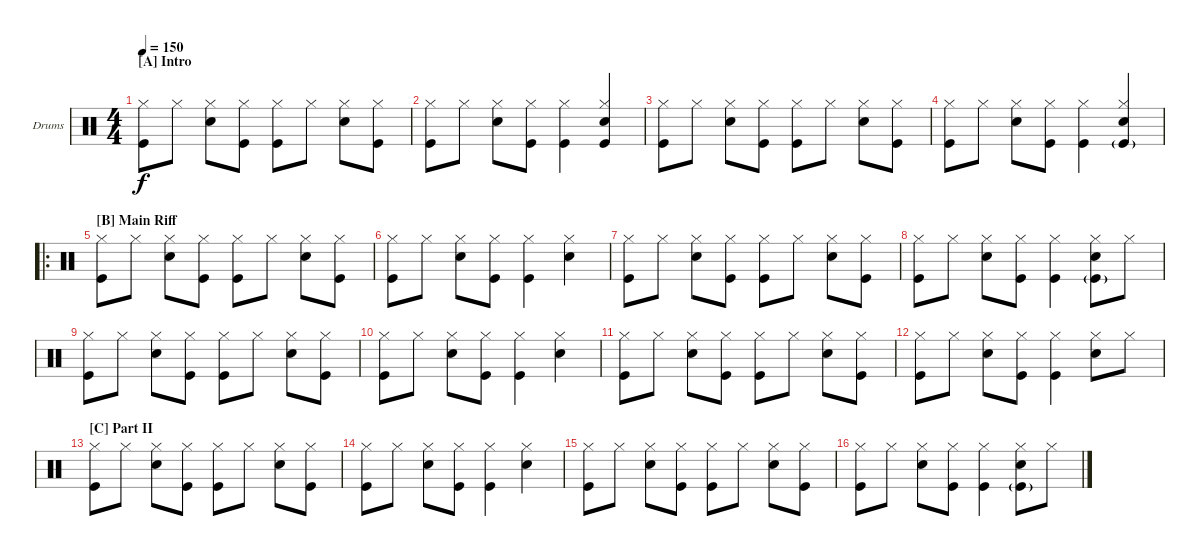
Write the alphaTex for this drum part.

\defaultSystemsLayout 4
\bracketExtendMode groupsimilarinstruments
\firstSystemTrackNameOrientation horizontal
\otherSystemsTrackNameOrientation horizontal
\track ("Drumkit" "Drums") {instrument percussion}
\staff {score}
\articulation defaults
\ts (4 4)
\section ("A" "Intro")
\tempo 150
\clef neutral
\ks c
("Kick (hit)" "Hi-Hat (closed)").8{dy f} "Hi-Hat (closed)".8 ("Hi-Hat (closed)" "Snare (hit) 2").8 ("Hi-Hat (closed)" "Kick (hit)").8 ("Hi-Hat (closed)" "Kick (hit)").8 "Hi-Hat (closed)".8 ("Hi-Hat (closed)" "Snare (hit) 2").8 ("Hi-Hat (closed)" "Kick (hit)").8 |
("Kick (hit)" "Hi-Hat (closed)").8 "Hi-Hat (closed)".8 ("Hi-Hat (closed)" "Snare (hit) 2").8 ("Hi-Hat (closed)" "Kick (hit)").8 ("Kick (hit)" "Hi-Hat (closed)").4 ("Kick (hit)" "Hi-Hat (closed)" "Snare (hit) 2").4 |
("Kick (hit)" "Hi-Hat (closed)").8 "Hi-Hat (closed)".8 ("Hi-Hat (closed)" "Snare (hit) 2").8 ("Hi-Hat (closed)" "Kick (hit)").8 ("Hi-Hat (closed)" "Kick (hit)").8 "Hi-Hat (closed)".8 ("Hi-Hat (closed)" "Snare (hit) 2").8 ("Hi-Hat (closed)" "Kick (hit)").8 |
("Kick (hit)" "Hi-Hat (closed)").8 "Hi-Hat (closed)".8 ("Hi-Hat (closed)" "Snare (hit) 2").8 ("Hi-Hat (closed)" "Kick (hit)").8 ("Kick (hit)" "Hi-Hat (closed)").4 ("Kick (hit)"{g} "Hi-Hat (closed)" "Snare (hit) 2").4 |
\ro
\section ("B" "Main Riff")
("Kick (hit)" "Hi-Hat (closed)").8 "Hi-Hat (closed)".8 ("Hi-Hat (closed)" "Snare (hit) 2").8 ("Hi-Hat (closed)" "Kick (hit)").8 ("Hi-Hat (closed)" "Kick (hit)").8 "Hi-Hat (closed)".8 ("Hi-Hat (closed)" "Snare (hit) 2").8 ("Hi-Hat (closed)" "Kick (hit)").8 |
("Kick (hit)" "Hi-Hat (closed)").8 "Hi-Hat (closed)".8 ("Hi-Hat (closed)" "Snare (hit) 2").8 ("Hi-Hat (closed)" "Kick (hit)").8 ("Kick (hit)" "Hi-Hat (closed)").4 ("Hi-Hat (closed)" "Snare (hit) 2").4 |
("Kick (hit)" "Hi-Hat (closed)").8 "Hi-Hat (closed)".8 ("Hi-Hat (closed)" "Snare (hit) 2").8 ("Hi-Hat (closed)" "Kick (hit)").8 ("Hi-Hat (closed)" "Kick (hit)").8 "Hi-Hat (closed)".8 ("Hi-Hat (closed)" "Snare (hit) 2").8 ("Hi-Hat (closed)" "Kick (hit)").8 |
("Kick (hit)" "Hi-Hat (closed)").8 "Hi-Hat (closed)".8 ("Hi-Hat (closed)" "Snare (hit) 2").8 ("Hi-Hat (closed)" "Kick (hit)").8 ("Kick (hit)" "Hi-Hat (closed)").4 ("Kick (hit)"{g} "Hi-Hat (closed)" "Snare (hit) 2").8 "Hi-Hat (closed)".8 |
("Kick (hit)" "Hi-Hat (closed)").8 "Hi-Hat (closed)".8 ("Hi-Hat (closed)" "Snare (hit) 2").8 ("Hi-Hat (closed)" "Kick (hit)").8 ("Hi-Hat (closed)" "Kick (hit)").8 "Hi-Hat (closed)".8 ("Hi-Hat (closed)" "Snare (hit) 2").8 ("Hi-Hat (closed)" "Kick (hit)").8 |
("Kick (hit)" "Hi-Hat (closed)").8 "Hi-Hat (closed)".8 ("Hi-Hat (closed)" "Snare (hit) 2").8 ("Hi-Hat (closed)" "Kick (hit)").8 ("Kick (hit)" "Hi-Hat (closed)").4 ("Hi-Hat (closed)" "Snare (hit) 2").4 |
("Kick (hit)" "Hi-Hat (closed)").8 "Hi-Hat (closed)".8 ("Hi-Hat (closed)" "Snare (hit) 2").8 ("Hi-Hat (closed)" "Kick (hit)").8 ("Hi-Hat (closed)" "Kick (hit)").8 "Hi-Hat (closed)".8 ("Hi-Hat (closed)" "Snare (hit) 2").8 ("Hi-Hat (closed)" "Kick (hit)").8 |
("Kick (hit)" "Hi-Hat (closed)").8 "Hi-Hat (closed)".8 ("Hi-Hat (closed)" "Snare (hit) 2").8 ("Hi-Hat (closed)" "Kick (hit)").8 ("Kick (hit)" "Hi-Hat (closed)").4 ("Hi-Hat (closed)" "Snare (hit) 2").8 "Hi-Hat (closed)".8 |
\section ("C" "Part II")
("Kick (hit)" "Hi-Hat (closed)").8 "Hi-Hat (closed)".8 ("Hi-Hat (closed)" "Snare (hit) 2").8 ("Hi-Hat (closed)" "Kick (hit)").8 ("Hi-Hat (closed)" "Kick (hit)").8 "Hi-Hat (closed)".8 ("Hi-Hat (closed)" "Snare (hit) 2").8 ("Hi-Hat (closed)" "Kick (hit)").8 |
("Kick (hit)" "Hi-Hat (closed)").8 "Hi-Hat (closed)".8 ("Hi-Hat (closed)" "Snare (hit) 2").8 ("Hi-Hat (closed)" "Kick (hit)").8 ("Kick (hit)" "Hi-Hat (closed)").4 ("Hi-Hat (closed)" "Snare (hit) 2").4 |
("Kick (hit)" "Hi-Hat (closed)").8 "Hi-Hat (closed)".8 ("Hi-Hat (closed)" "Snare (hit) 2").8 ("Hi-Hat (closed)" "Kick (hit)").8 ("Hi-Hat (closed)" "Kick (hit)").8 "Hi-Hat (closed)".8 ("Hi-Hat (closed)" "Snare (hit) 2").8 ("Hi-Hat (closed)" "Kick (hit)").8 |
("Kick (hit)" "Hi-Hat (closed)").8 "Hi-Hat (closed)".8 ("Hi-Hat (closed)" "Snare (hit) 2").8 ("Hi-Hat (closed)" "Kick (hit)").8 ("Kick (hit)" "Hi-Hat (closed)").4 ("Kick (hit)"{g} "Hi-Hat (closed)" "Snare (hit) 2").8 "Hi-Hat (closed)".8
